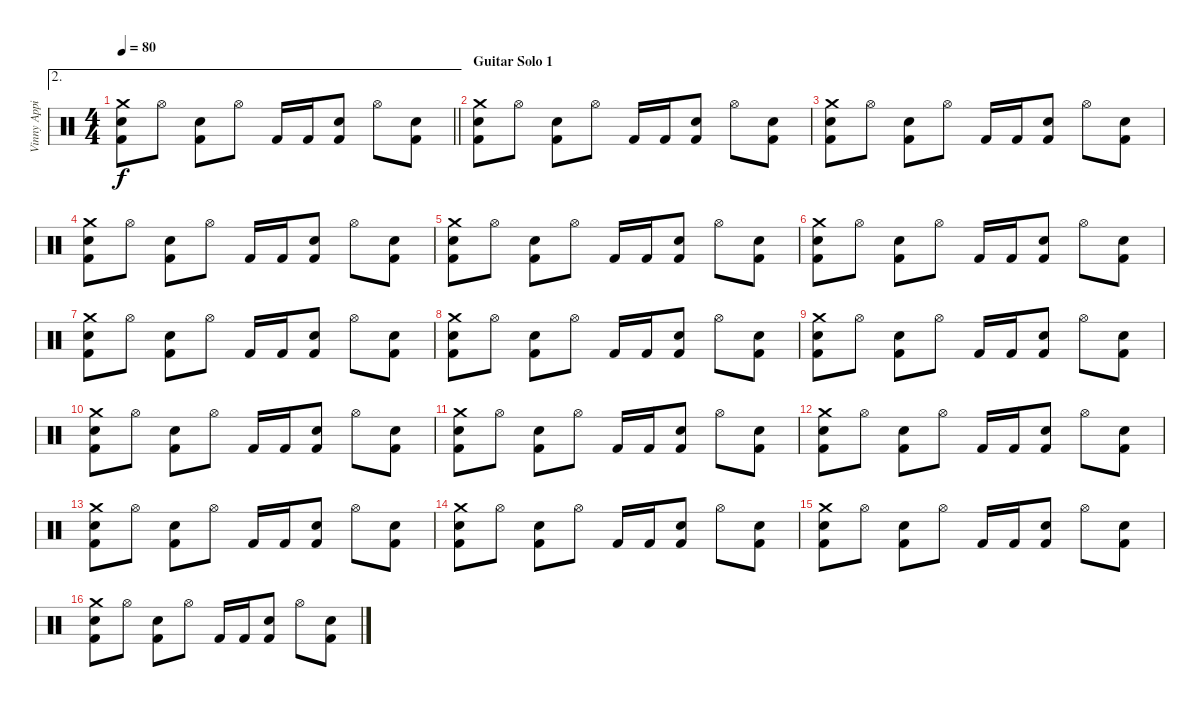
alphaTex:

\track ("Vinny Appice" "Vinny Appi") {instrument percussion}
\staff {score}
\articulation defaults
\ae 2
\ts (4 4)
\tempo 80
\clef neutral
\barLineRight lightlight
\ks c
("Crash medium (hit)" "Snare (hit) 2" "Kick (hit) 2").8{dy f} "Hi-Hat (open)".8 ("Snare (hit) 2" "Kick (hit) 2").8 "Hi-Hat (open)".8 "Kick (hit) 2".16 "Kick (hit) 2".16 ("Snare (hit) 2" "Kick (hit) 2").8 "Hi-Hat (open)".8 ("Snare (hit) 2" "Kick (hit) 2").8 |
\section ("" "Guitar Solo 1")
("Crash medium (hit)" "Snare (hit) 2" "Kick (hit) 2").8 "Hi-Hat (open)".8 ("Snare (hit) 2" "Kick (hit) 2").8 "Hi-Hat (open)".8 "Kick (hit) 2".16 "Kick (hit) 2".16 ("Snare (hit) 2" "Kick (hit) 2").8 "Hi-Hat (open)".8 ("Snare (hit) 2" "Kick (hit) 2").8 |
("Crash medium (hit)" "Snare (hit) 2" "Kick (hit) 2").8 "Hi-Hat (open)".8 ("Snare (hit) 2" "Kick (hit) 2").8 "Hi-Hat (open)".8 "Kick (hit) 2".16 "Kick (hit) 2".16 ("Snare (hit) 2" "Kick (hit) 2").8 "Hi-Hat (open)".8 ("Snare (hit) 2" "Kick (hit) 2").8 |
("Crash medium (hit)" "Snare (hit) 2" "Kick (hit) 2").8 "Hi-Hat (open)".8 ("Snare (hit) 2" "Kick (hit) 2").8 "Hi-Hat (open)".8 "Kick (hit) 2".16 "Kick (hit) 2".16 ("Snare (hit) 2" "Kick (hit) 2").8 "Hi-Hat (open)".8 ("Snare (hit) 2" "Kick (hit) 2").8 |
("Crash medium (hit)" "Snare (hit) 2" "Kick (hit) 2").8 "Hi-Hat (open)".8 ("Snare (hit) 2" "Kick (hit) 2").8 "Hi-Hat (open)".8 "Kick (hit) 2".16 "Kick (hit) 2".16 ("Snare (hit) 2" "Kick (hit) 2").8 "Hi-Hat (open)".8 ("Snare (hit) 2" "Kick (hit) 2").8 |
("Crash medium (hit)" "Snare (hit) 2" "Kick (hit) 2").8 "Hi-Hat (open)".8 ("Snare (hit) 2" "Kick (hit) 2").8 "Hi-Hat (open)".8 "Kick (hit) 2".16 "Kick (hit) 2".16 ("Snare (hit) 2" "Kick (hit) 2").8 "Hi-Hat (open)".8 ("Snare (hit) 2" "Kick (hit) 2").8 |
("Crash medium (hit)" "Snare (hit) 2" "Kick (hit) 2").8 "Hi-Hat (open)".8 ("Snare (hit) 2" "Kick (hit) 2").8 "Hi-Hat (open)".8 "Kick (hit) 2".16 "Kick (hit) 2".16 ("Snare (hit) 2" "Kick (hit) 2").8 "Hi-Hat (open)".8 ("Snare (hit) 2" "Kick (hit) 2").8 |
("Crash medium (hit)" "Snare (hit) 2" "Kick (hit) 2").8 "Hi-Hat (open)".8 ("Snare (hit) 2" "Kick (hit) 2").8 "Hi-Hat (open)".8 "Kick (hit) 2".16 "Kick (hit) 2".16 ("Snare (hit) 2" "Kick (hit) 2").8 "Hi-Hat (open)".8 ("Snare (hit) 2" "Kick (hit) 2").8 |
("Crash medium (hit)" "Snare (hit) 2" "Kick (hit) 2").8 "Hi-Hat (open)".8 ("Snare (hit) 2" "Kick (hit) 2").8 "Hi-Hat (open)".8 "Kick (hit) 2".16 "Kick (hit) 2".16 ("Snare (hit) 2" "Kick (hit) 2").8 "Hi-Hat (open)".8 ("Snare (hit) 2" "Kick (hit) 2").8 |
("Crash medium (hit)" "Snare (hit) 2" "Kick (hit) 2").8 "Hi-Hat (open)".8 ("Snare (hit) 2" "Kick (hit) 2").8 "Hi-Hat (open)".8 "Kick (hit) 2".16 "Kick (hit) 2".16 ("Snare (hit) 2" "Kick (hit) 2").8 "Hi-Hat (open)".8 ("Snare (hit) 2" "Kick (hit) 2").8 |
("Crash medium (hit)" "Snare (hit) 2" "Kick (hit) 2").8 "Hi-Hat (open)".8 ("Snare (hit) 2" "Kick (hit) 2").8 "Hi-Hat (open)".8 "Kick (hit) 2".16 "Kick (hit) 2".16 ("Snare (hit) 2" "Kick (hit) 2").8 "Hi-Hat (open)".8 ("Snare (hit) 2" "Kick (hit) 2").8 |
("Crash medium (hit)" "Snare (hit) 2" "Kick (hit) 2").8 "Hi-Hat (open)".8 ("Snare (hit) 2" "Kick (hit) 2").8 "Hi-Hat (open)".8 "Kick (hit) 2".16 "Kick (hit) 2".16 ("Snare (hit) 2" "Kick (hit) 2").8 "Hi-Hat (open)".8 ("Snare (hit) 2" "Kick (hit) 2").8 |
("Crash medium (hit)" "Snare (hit) 2" "Kick (hit) 2").8 "Hi-Hat (open)".8 ("Snare (hit) 2" "Kick (hit) 2").8 "Hi-Hat (open)".8 "Kick (hit) 2".16 "Kick (hit) 2".16 ("Snare (hit) 2" "Kick (hit) 2").8 "Hi-Hat (open)".8 ("Snare (hit) 2" "Kick (hit) 2").8 |
("Crash medium (hit)" "Snare (hit) 2" "Kick (hit) 2").8 "Hi-Hat (open)".8 ("Snare (hit) 2" "Kick (hit) 2").8 "Hi-Hat (open)".8 "Kick (hit) 2".16 "Kick (hit) 2".16 ("Snare (hit) 2" "Kick (hit) 2").8 "Hi-Hat (open)".8 ("Snare (hit) 2" "Kick (hit) 2").8 |
("Crash medium (hit)" "Snare (hit) 2" "Kick (hit) 2").8 "Hi-Hat (open)".8 ("Snare (hit) 2" "Kick (hit) 2").8 "Hi-Hat (open)".8 "Kick (hit) 2".16 "Kick (hit) 2".16 ("Snare (hit) 2" "Kick (hit) 2").8 "Hi-Hat (open)".8 ("Snare (hit) 2" "Kick (hit) 2").8 |
("Crash medium (hit)" "Snare (hit) 2" "Kick (hit) 2").8 "Hi-Hat (open)".8 ("Snare (hit) 2" "Kick (hit) 2").8 "Hi-Hat (open)".8 "Kick (hit) 2".16 "Kick (hit) 2".16 ("Snare (hit) 2" "Kick (hit) 2").8 "Hi-Hat (open)".8 ("Snare (hit) 2" "Kick (hit) 2").8
